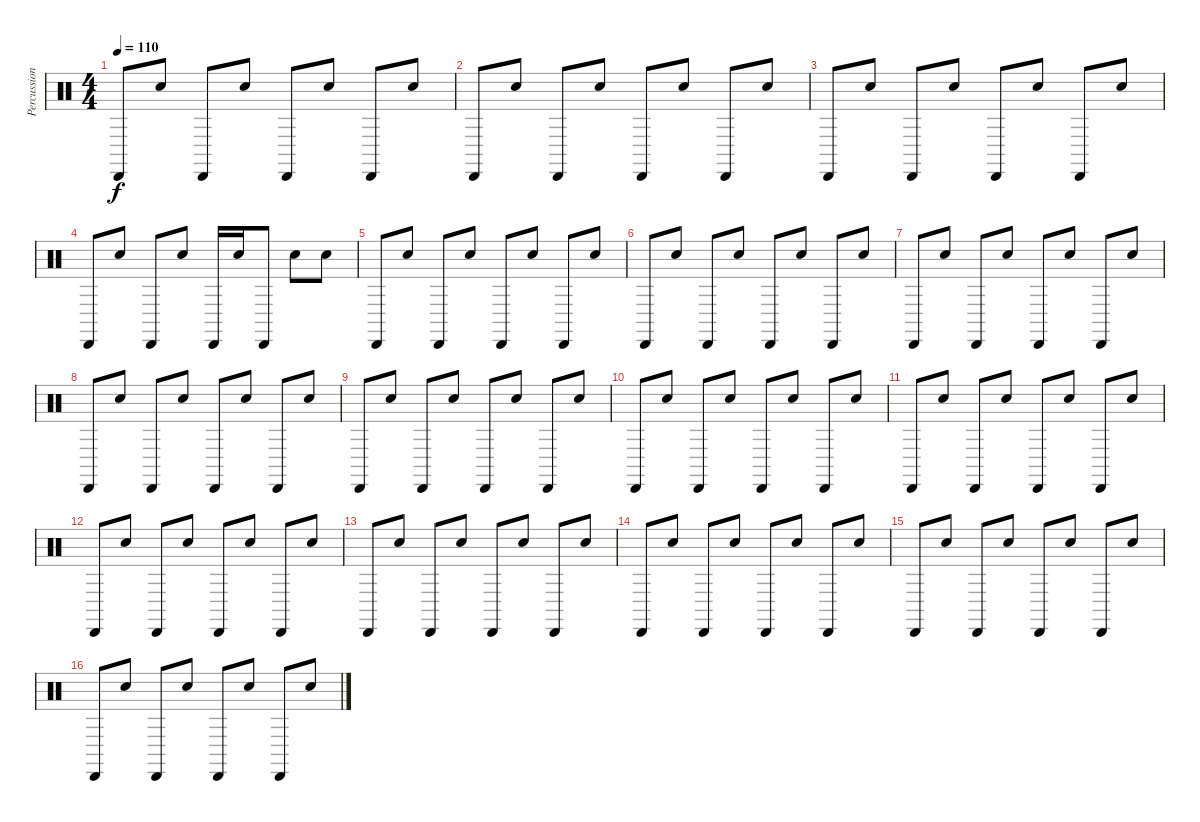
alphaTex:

\track ("Percussions" "Percussion") {instrument percussion}
\staff {score}
\articulation defaults
\ts (4 4)
\tempo 110
\clef neutral
\ks c "Cabasa (hit)".8{dy f} "Electric Snare (hit)".8 "Cabasa (hit)".8 "Electric Snare (hit)".8 "Cabasa (hit)".8 "Electric Snare (hit)".8 "Cabasa (hit)".8 "Electric Snare (hit)".8
|
"Cabasa (hit)".8 "Electric Snare (hit)".8 "Cabasa (hit)".8 "Electric Snare (hit)".8 "Cabasa (hit)".8 "Electric Snare (hit)".8 "Cabasa (hit)".8 "Electric Snare (hit)".8 |
"Cabasa (hit)".8 "Electric Snare (hit)".8 "Cabasa (hit)".8 "Electric Snare (hit)".8 "Cabasa (hit)".8 "Electric Snare (hit)".8 "Cabasa (hit)".8 "Electric Snare (hit)".8 |
"Cabasa (hit)".8 "Electric Snare (hit)".8 "Cabasa (hit)".8 "Electric Snare (hit)".8 "Cabasa (hit)".16 "Electric Snare (hit)".16 "Cabasa (hit)".8 "Electric Snare (hit)".8 "Electric Snare (hit)".8 |
"Cabasa (hit)".8 "Electric Snare (hit)".8 "Cabasa (hit)".8 "Electric Snare (hit)".8 "Cabasa (hit)".8 "Electric Snare (hit)".8 "Cabasa (hit)".8 "Electric Snare (hit)".8 |
"Cabasa (hit)".8 "Electric Snare (hit)".8 "Cabasa (hit)".8 "Electric Snare (hit)".8 "Cabasa (hit)".8 "Electric Snare (hit)".8 "Cabasa (hit)".8 "Electric Snare (hit)".8 |
"Cabasa (hit)".8 "Electric Snare (hit)".8 "Cabasa (hit)".8 "Electric Snare (hit)".8 "Cabasa (hit)".8 "Electric Snare (hit)".8 "Cabasa (hit)".8 "Electric Snare (hit)".8 |
"Cabasa (hit)".8 "Electric Snare (hit)".8 "Cabasa (hit)".8 "Electric Snare (hit)".8 "Cabasa (hit)".8 "Electric Snare (hit)".8 "Cabasa (hit)".8 "Electric Snare (hit)".8 |
"Cabasa (hit)".8 "Electric Snare (hit)".8 "Cabasa (hit)".8 "Electric Snare (hit)".8 "Cabasa (hit)".8 "Electric Snare (hit)".8 "Cabasa (hit)".8 "Electric Snare (hit)".8 |
"Cabasa (hit)".8 "Electric Snare (hit)".8 "Cabasa (hit)".8 "Electric Snare (hit)".8 "Cabasa (hit)".8 "Electric Snare (hit)".8 "Cabasa (hit)".8 "Electric Snare (hit)".8 |
"Cabasa (hit)".8 "Electric Snare (hit)".8 "Cabasa (hit)".8 "Electric Snare (hit)".8 "Cabasa (hit)".8 "Electric Snare (hit)".8 "Cabasa (hit)".8 "Electric Snare (hit)".8 |
"Cabasa (hit)".8 "Electric Snare (hit)".8 "Cabasa (hit)".8 "Electric Snare (hit)".8 "Cabasa (hit)".8 "Electric Snare (hit)".8 "Cabasa (hit)".8 "Electric Snare (hit)".8 |
"Cabasa (hit)".8 "Electric Snare (hit)".8 "Cabasa (hit)".8 "Electric Snare (hit)".8 "Cabasa (hit)".8 "Electric Snare (hit)".8 "Cabasa (hit)".8 "Electric Snare (hit)".8 |
"Cabasa (hit)".8 "Electric Snare (hit)".8 "Cabasa (hit)".8 "Electric Snare (hit)".8 "Cabasa (hit)".8 "Electric Snare (hit)".8 "Cabasa (hit)".8 "Electric Snare (hit)".8 |
"Cabasa (hit)".8 "Electric Snare (hit)".8 "Cabasa (hit)".8 "Electric Snare (hit)".8 "Cabasa (hit)".8 "Electric Snare (hit)".8 "Cabasa (hit)".8 "Electric Snare (hit)".8 |
"Cabasa (hit)".8 "Electric Snare (hit)".8 "Cabasa (hit)".8 "Electric Snare (hit)".8 "Cabasa (hit)".8 "Electric Snare (hit)".8 "Cabasa (hit)".8 "Electric Snare (hit)".8
